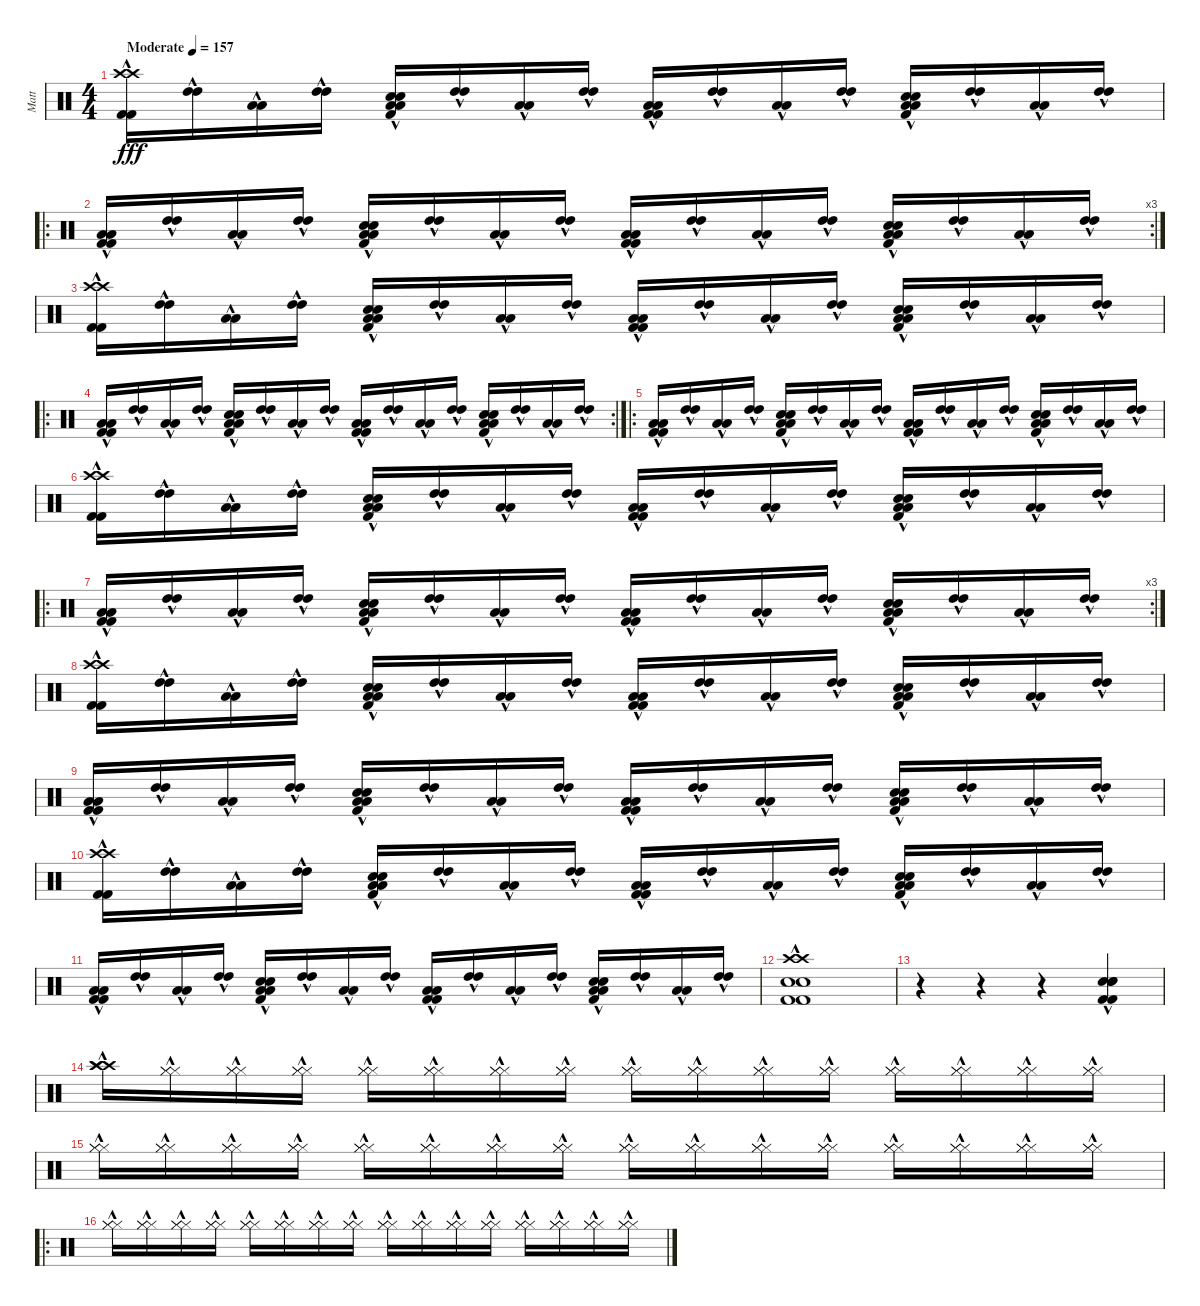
\track ("Matt" "Matt") {instrument percussion}
\staff {score}
\articulation defaults
\ts (4 4)
\tempo (157 "Moderate")
\clef neutral
\ks c
("Crash high (hit)"{hac} "Crash high (hit)"{hac} "Kick (hit) 2"{hac} "Kick (hit) 2"{hac}).16{dy fff} ("High Tom (hit)"{hac} "High Tom (hit)"{hac}).16 ("Low Tom (hit)"{hac} "Low Tom (hit)"{hac}).16 ("High Tom (hit)"{hac} "High Tom (hit)"{hac}).16 ("Low Tom (hit)"{hac} "Low Tom (hit)"{hac} "Snare (hit) 2"{hac} "Kick (hit) 2"{hac} "Snare (hit) 2"{hac}).16 ("High Tom (hit)"{hac} "High Tom (hit)"{hac}).16 ("Low Tom (hit)"{hac} "Low Tom (hit)"{hac}).16 ("High Tom (hit)"{hac} "High Tom (hit)"{hac}).16 ("Low Tom (hit)"{hac} "Low Tom (hit)"{hac} "Kick (hit) 2"{hac} "Kick (hit) 2"{hac}).16 ("High Tom (hit)"{hac} "High Tom (hit)"{hac}).16 ("Low Tom (hit)"{hac} "Low Tom (hit)"{hac}).16 ("High Tom (hit)"{hac} "High Tom (hit)"{hac}).16 ("Low Tom (hit)"{hac} "Low Tom (hit)"{hac} "Snare (hit) 2"{hac} "Kick (hit) 2"{hac} "Snare (hit) 2"{hac}).16 ("High Tom (hit)"{hac} "High Tom (hit)"{hac}).16 ("Low Tom (hit)"{hac} "Low Tom (hit)"{hac}).16 ("High Tom (hit)"{hac} "High Tom (hit)"{hac}).16 |
\ro
\rc 3
("Low Tom (hit)"{hac} "Low Tom (hit)"{hac} "Kick (hit) 2"{hac} "Kick (hit) 2"{hac}).16 ("High Tom (hit)"{hac} "High Tom (hit)"{hac}).16 ("Low Tom (hit)"{hac} "Low Tom (hit)"{hac}).16 ("High Tom (hit)"{hac} "High Tom (hit)"{hac}).16 ("Low Tom (hit)"{hac} "Low Tom (hit)"{hac} "Snare (hit) 2"{hac} "Kick (hit) 2"{hac} "Snare (hit) 2"{hac}).16 ("High Tom (hit)"{hac} "High Tom (hit)"{hac}).16 ("Low Tom (hit)"{hac} "Low Tom (hit)"{hac}).16 ("High Tom (hit)"{hac} "High Tom (hit)"{hac}).16 ("Low Tom (hit)"{hac} "Low Tom (hit)"{hac} "Kick (hit) 2"{hac} "Kick (hit) 2"{hac}).16 ("High Tom (hit)"{hac} "High Tom (hit)"{hac}).16 ("Low Tom (hit)"{hac} "Low Tom (hit)"{hac}).16 ("High Tom (hit)"{hac} "High Tom (hit)"{hac}).16 ("Low Tom (hit)"{hac} "Low Tom (hit)"{hac} "Snare (hit) 2"{hac} "Kick (hit) 2"{hac} "Snare (hit) 2"{hac}).16 ("High Tom (hit)"{hac} "High Tom (hit)"{hac}).16 ("Low Tom (hit)"{hac} "Low Tom (hit)"{hac}).16 ("High Tom (hit)"{hac} "High Tom (hit)"{hac}).16 |
("Crash high (hit)"{hac} "Crash high (hit)"{hac} "Kick (hit) 2"{hac} "Kick (hit) 2"{hac}).16 ("High Tom (hit)"{hac} "High Tom (hit)"{hac}).16 ("Low Tom (hit)"{hac} "Low Tom (hit)"{hac}).16 ("High Tom (hit)"{hac} "High Tom (hit)"{hac}).16 ("Low Tom (hit)"{hac} "Low Tom (hit)"{hac} "Snare (hit) 2"{hac} "Kick (hit) 2"{hac} "Snare (hit) 2"{hac}).16 ("High Tom (hit)"{hac} "High Tom (hit)"{hac}).16 ("Low Tom (hit)"{hac} "Low Tom (hit)"{hac}).16 ("High Tom (hit)"{hac} "High Tom (hit)"{hac}).16 ("Low Tom (hit)"{hac} "Low Tom (hit)"{hac} "Kick (hit) 2"{hac} "Kick (hit) 2"{hac}).16 ("High Tom (hit)"{hac} "High Tom (hit)"{hac}).16 ("Low Tom (hit)"{hac} "Low Tom (hit)"{hac}).16 ("High Tom (hit)"{hac} "High Tom (hit)"{hac}).16 ("Low Tom (hit)"{hac} "Low Tom (hit)"{hac} "Snare (hit) 2"{hac} "Kick (hit) 2"{hac} "Snare (hit) 2"{hac}).16 ("High Tom (hit)"{hac} "High Tom (hit)"{hac}).16 ("Low Tom (hit)"{hac} "Low Tom (hit)"{hac}).16 ("High Tom (hit)"{hac} "High Tom (hit)"{hac}).16 |
\ro
\rc 2
("Low Tom (hit)"{hac} "Low Tom (hit)"{hac} "Kick (hit) 2"{hac} "Kick (hit) 2"{hac}).16 ("High Tom (hit)"{hac} "High Tom (hit)"{hac}).16 ("Low Tom (hit)"{hac} "Low Tom (hit)"{hac}).16 ("High Tom (hit)"{hac} "High Tom (hit)"{hac}).16 ("Low Tom (hit)"{hac} "Low Tom (hit)"{hac} "Snare (hit) 2"{hac} "Kick (hit) 2"{hac} "Snare (hit) 2"{hac}).16 ("High Tom (hit)"{hac} "High Tom (hit)"{hac}).16 ("Low Tom (hit)"{hac} "Low Tom (hit)"{hac}).16 ("High Tom (hit)"{hac} "High Tom (hit)"{hac}).16 ("Low Tom (hit)"{hac} "Low Tom (hit)"{hac} "Kick (hit) 2"{hac} "Kick (hit) 2"{hac}).16 ("High Tom (hit)"{hac} "High Tom (hit)"{hac}).16 ("Low Tom (hit)"{hac} "Low Tom (hit)"{hac}).16 ("High Tom (hit)"{hac} "High Tom (hit)"{hac}).16 ("Low Tom (hit)"{hac} "Low Tom (hit)"{hac} "Snare (hit) 2"{hac} "Kick (hit) 2"{hac} "Snare (hit) 2"{hac}).16 ("High Tom (hit)"{hac} "High Tom (hit)"{hac}).16 ("Low Tom (hit)"{hac} "Low Tom (hit)"{hac}).16 ("High Tom (hit)"{hac} "High Tom (hit)"{hac}).16 |
\ro
("Low Tom (hit)"{hac} "Low Tom (hit)"{hac} "Kick (hit) 2"{hac} "Kick (hit) 2"{hac}).16 ("High Tom (hit)"{hac} "High Tom (hit)"{hac}).16 ("Low Tom (hit)"{hac} "Low Tom (hit)"{hac}).16 ("High Tom (hit)"{hac} "High Tom (hit)"{hac}).16 ("Low Tom (hit)"{hac} "Low Tom (hit)"{hac} "Snare (hit) 2"{hac} "Kick (hit) 2"{hac} "Snare (hit) 2"{hac}).16 ("High Tom (hit)"{hac} "High Tom (hit)"{hac}).16 ("Low Tom (hit)"{hac} "Low Tom (hit)"{hac}).16 ("High Tom (hit)"{hac} "High Tom (hit)"{hac}).16 ("Low Tom (hit)"{hac} "Low Tom (hit)"{hac} "Kick (hit) 2"{hac} "Kick (hit) 2"{hac}).16 ("High Tom (hit)"{hac} "High Tom (hit)"{hac}).16 ("Low Tom (hit)"{hac} "Low Tom (hit)"{hac}).16 ("High Tom (hit)"{hac} "High Tom (hit)"{hac}).16 ("Low Tom (hit)"{hac} "Low Tom (hit)"{hac} "Snare (hit) 2"{hac} "Kick (hit) 2"{hac} "Snare (hit) 2"{hac}).16 ("High Tom (hit)"{hac} "High Tom (hit)"{hac}).16 ("Low Tom (hit)"{hac} "Low Tom (hit)"{hac}).16 ("High Tom (hit)"{hac} "High Tom (hit)"{hac}).16 |
("Crash high (hit)"{hac} "Crash high (hit)"{hac} "Kick (hit) 2"{hac} "Kick (hit) 2"{hac}).16 ("High Tom (hit)"{hac} "High Tom (hit)"{hac}).16 ("Low Tom (hit)"{hac} "Low Tom (hit)"{hac}).16 ("High Tom (hit)"{hac} "High Tom (hit)"{hac}).16 ("Low Tom (hit)"{hac} "Low Tom (hit)"{hac} "Snare (hit) 2"{hac} "Kick (hit) 2"{hac} "Snare (hit) 2"{hac}).16 ("High Tom (hit)"{hac} "High Tom (hit)"{hac}).16 ("Low Tom (hit)"{hac} "Low Tom (hit)"{hac}).16 ("High Tom (hit)"{hac} "High Tom (hit)"{hac}).16 ("Low Tom (hit)"{hac} "Low Tom (hit)"{hac} "Kick (hit) 2"{hac} "Kick (hit) 2"{hac}).16 ("High Tom (hit)"{hac} "High Tom (hit)"{hac}).16 ("Low Tom (hit)"{hac} "Low Tom (hit)"{hac}).16 ("High Tom (hit)"{hac} "High Tom (hit)"{hac}).16 ("Low Tom (hit)"{hac} "Low Tom (hit)"{hac} "Snare (hit) 2"{hac} "Kick (hit) 2"{hac} "Snare (hit) 2"{hac}).16 ("High Tom (hit)"{hac} "High Tom (hit)"{hac}).16 ("Low Tom (hit)"{hac} "Low Tom (hit)"{hac}).16 ("High Tom (hit)"{hac} "High Tom (hit)"{hac}).16 |
\ro
\rc 3
("Low Tom (hit)"{hac} "Low Tom (hit)"{hac} "Kick (hit) 2"{hac} "Kick (hit) 2"{hac}).16 ("High Tom (hit)"{hac} "High Tom (hit)"{hac}).16 ("Low Tom (hit)"{hac} "Low Tom (hit)"{hac}).16 ("High Tom (hit)"{hac} "High Tom (hit)"{hac}).16 ("Low Tom (hit)"{hac} "Low Tom (hit)"{hac} "Snare (hit) 2"{hac} "Kick (hit) 2"{hac} "Snare (hit) 2"{hac}).16 ("High Tom (hit)"{hac} "High Tom (hit)"{hac}).16 ("Low Tom (hit)"{hac} "Low Tom (hit)"{hac}).16 ("High Tom (hit)"{hac} "High Tom (hit)"{hac}).16 ("Low Tom (hit)"{hac} "Low Tom (hit)"{hac} "Kick (hit) 2"{hac} "Kick (hit) 2"{hac}).16 ("High Tom (hit)"{hac} "High Tom (hit)"{hac}).16 ("Low Tom (hit)"{hac} "Low Tom (hit)"{hac}).16 ("High Tom (hit)"{hac} "High Tom (hit)"{hac}).16 ("Low Tom (hit)"{hac} "Low Tom (hit)"{hac} "Snare (hit) 2"{hac} "Kick (hit) 2"{hac} "Snare (hit) 2"{hac}).16 ("High Tom (hit)"{hac} "High Tom (hit)"{hac}).16 ("Low Tom (hit)"{hac} "Low Tom (hit)"{hac}).16 ("High Tom (hit)"{hac} "High Tom (hit)"{hac}).16 |
("Crash high (hit)"{hac} "Crash high (hit)"{hac} "Kick (hit) 2"{hac} "Kick (hit) 2"{hac}).16 ("High Tom (hit)"{hac} "High Tom (hit)"{hac}).16 ("Low Tom (hit)"{hac} "Low Tom (hit)"{hac}).16 ("High Tom (hit)"{hac} "High Tom (hit)"{hac}).16 ("Low Tom (hit)"{hac} "Low Tom (hit)"{hac} "Snare (hit) 2"{hac} "Kick (hit) 2"{hac} "Snare (hit) 2"{hac}).16 ("High Tom (hit)"{hac} "High Tom (hit)"{hac}).16 ("Low Tom (hit)"{hac} "Low Tom (hit)"{hac}).16 ("High Tom (hit)"{hac} "High Tom (hit)"{hac}).16 ("Low Tom (hit)"{hac} "Low Tom (hit)"{hac} "Kick (hit) 2"{hac} "Kick (hit) 2"{hac}).16 ("High Tom (hit)"{hac} "High Tom (hit)"{hac}).16 ("Low Tom (hit)"{hac} "Low Tom (hit)"{hac}).16 ("High Tom (hit)"{hac} "High Tom (hit)"{hac}).16 ("Low Tom (hit)"{hac} "Low Tom (hit)"{hac} "Snare (hit) 2"{hac} "Kick (hit) 2"{hac} "Snare (hit) 2"{hac}).16 ("High Tom (hit)"{hac} "High Tom (hit)"{hac}).16 ("Low Tom (hit)"{hac} "Low Tom (hit)"{hac}).16 ("High Tom (hit)"{hac} "High Tom (hit)"{hac}).16 |
("Low Tom (hit)"{hac} "Low Tom (hit)"{hac} "Kick (hit) 2"{hac} "Kick (hit) 2"{hac}).16 ("High Tom (hit)"{hac} "High Tom (hit)"{hac}).16 ("Low Tom (hit)"{hac} "Low Tom (hit)"{hac}).16 ("High Tom (hit)"{hac} "High Tom (hit)"{hac}).16 ("Low Tom (hit)"{hac} "Low Tom (hit)"{hac} "Snare (hit) 2"{hac} "Kick (hit) 2"{hac} "Snare (hit) 2"{hac}).16 ("High Tom (hit)"{hac} "High Tom (hit)"{hac}).16 ("Low Tom (hit)"{hac} "Low Tom (hit)"{hac}).16 ("High Tom (hit)"{hac} "High Tom (hit)"{hac}).16 ("Low Tom (hit)"{hac} "Low Tom (hit)"{hac} "Kick (hit) 2"{hac} "Kick (hit) 2"{hac}).16 ("High Tom (hit)"{hac} "High Tom (hit)"{hac}).16 ("Low Tom (hit)"{hac} "Low Tom (hit)"{hac}).16 ("High Tom (hit)"{hac} "High Tom (hit)"{hac}).16 ("Low Tom (hit)"{hac} "Low Tom (hit)"{hac} "Snare (hit) 2"{hac} "Kick (hit) 2"{hac} "Snare (hit) 2"{hac}).16 ("High Tom (hit)"{hac} "High Tom (hit)"{hac}).16 ("Low Tom (hit)"{hac} "Low Tom (hit)"{hac}).16 ("High Tom (hit)"{hac} "High Tom (hit)"{hac}).16 |
("Crash high (hit)"{hac} "Crash high (hit)"{hac} "Kick (hit) 2"{hac} "Kick (hit) 2"{hac}).16 ("High Tom (hit)"{hac} "High Tom (hit)"{hac}).16 ("Low Tom (hit)"{hac} "Low Tom (hit)"{hac}).16 ("High Tom (hit)"{hac} "High Tom (hit)"{hac}).16 ("Low Tom (hit)"{hac} "Low Tom (hit)"{hac} "Snare (hit) 2"{hac} "Kick (hit) 2"{hac} "Snare (hit) 2"{hac}).16 ("High Tom (hit)"{hac} "High Tom (hit)"{hac}).16 ("Low Tom (hit)"{hac} "Low Tom (hit)"{hac}).16 ("High Tom (hit)"{hac} "High Tom (hit)"{hac}).16 ("Low Tom (hit)"{hac} "Low Tom (hit)"{hac} "Kick (hit) 2"{hac} "Kick (hit) 2"{hac}).16 ("High Tom (hit)"{hac} "High Tom (hit)"{hac}).16 ("Low Tom (hit)"{hac} "Low Tom (hit)"{hac}).16 ("High Tom (hit)"{hac} "High Tom (hit)"{hac}).16 ("Low Tom (hit)"{hac} "Low Tom (hit)"{hac} "Snare (hit) 2"{hac} "Kick (hit) 2"{hac} "Snare (hit) 2"{hac}).16 ("High Tom (hit)"{hac} "High Tom (hit)"{hac}).16 ("Low Tom (hit)"{hac} "Low Tom (hit)"{hac}).16 ("High Tom (hit)"{hac} "High Tom (hit)"{hac}).16 |
("Low Tom (hit)"{hac} "Low Tom (hit)"{hac} "Kick (hit) 2"{hac} "Kick (hit) 2"{hac}).16 ("High Tom (hit)"{hac} "High Tom (hit)"{hac}).16 ("Low Tom (hit)"{hac} "Low Tom (hit)"{hac}).16 ("High Tom (hit)"{hac} "High Tom (hit)"{hac}).16 ("Low Tom (hit)"{hac} "Low Tom (hit)"{hac} "Snare (hit) 2"{hac} "Kick (hit) 2"{hac} "Snare (hit) 2"{hac}).16 ("High Tom (hit)"{hac} "High Tom (hit)"{hac}).16 ("Low Tom (hit)"{hac} "Low Tom (hit)"{hac}).16 ("High Tom (hit)"{hac} "High Tom (hit)"{hac}).16 ("Low Tom (hit)"{hac} "Low Tom (hit)"{hac} "Kick (hit) 2"{hac} "Kick (hit) 2"{hac}).16 ("High Tom (hit)"{hac} "High Tom (hit)"{hac}).16 ("Low Tom (hit)"{hac} "Low Tom (hit)"{hac}).16 ("High Tom (hit)"{hac} "High Tom (hit)"{hac}).16 ("Low Tom (hit)"{hac} "Low Tom (hit)"{hac} "Snare (hit) 2"{hac} "Kick (hit) 2"{hac} "Snare (hit) 2"{hac}).16 ("High Tom (hit)"{hac} "High Tom (hit)"{hac}).16 ("Low Tom (hit)"{hac} "Low Tom (hit)"{hac}).16 ("High Tom (hit)"{hac} "High Tom (hit)"{hac}).16 |
("Crash high (hit)"{hac} "Crash high (hit)"{hac} "Snare (hit) 2"{hac} "Snare (hit) 2"{hac} "Kick (hit) 2"{hac} "Kick (hit) 2"{hac}).1 |
r.4 r.4 r.4 ("Kick (hit) 2"{hac} "Kick (hit) 2"{hac} "Snare (hit) 2"{hac} "Snare (hit) 2"{hac} "Snare (hit) 2"{hac}).4 |
("Crash high (hit)"{hac} "Crash high (hit)"{hac} "Crash high (hit)"{hac}).16 ("Hi-Hat (closed)"{hac} "Hi-Hat (closed)"{hac} "Hi-Hat (closed)"{hac}).16 ("Hi-Hat (closed)"{hac} "Hi-Hat (closed)"{hac} "Hi-Hat (closed)"{hac}).16 ("Hi-Hat (closed)"{hac} "Hi-Hat (closed)"{hac} "Hi-Hat (closed)"{hac}).16 ("Hi-Hat (closed)"{hac} "Hi-Hat (closed)"{hac} "Hi-Hat (closed)"{hac}).16 ("Hi-Hat (closed)"{hac} "Hi-Hat (closed)"{hac} "Hi-Hat (closed)"{hac}).16 ("Hi-Hat (closed)"{hac} "Hi-Hat (closed)"{hac} "Hi-Hat (closed)"{hac}).16 ("Hi-Hat (closed)"{hac} "Hi-Hat (closed)"{hac} "Hi-Hat (closed)"{hac}).16 ("Hi-Hat (closed)"{hac} "Hi-Hat (closed)"{hac} "Hi-Hat (closed)"{hac}).16 ("Hi-Hat (closed)"{hac} "Hi-Hat (closed)"{hac} "Hi-Hat (closed)"{hac}).16 ("Hi-Hat (closed)"{hac} "Hi-Hat (closed)"{hac} "Hi-Hat (closed)"{hac}).16 ("Hi-Hat (closed)"{hac} "Hi-Hat (closed)"{hac} "Hi-Hat (closed)"{hac}).16 ("Hi-Hat (closed)"{hac} "Hi-Hat (closed)"{hac} "Hi-Hat (closed)"{hac}).16 ("Hi-Hat (closed)"{hac} "Hi-Hat (closed)"{hac} "Hi-Hat (closed)"{hac}).16 ("Hi-Hat (closed)"{hac} "Hi-Hat (closed)"{hac} "Hi-Hat (closed)"{hac}).16 ("Hi-Hat (closed)"{hac} "Hi-Hat (closed)"{hac} "Hi-Hat (closed)"{hac}).16 |
("Hi-Hat (closed)"{hac} "Hi-Hat (closed)"{hac} "Hi-Hat (closed)"{hac}).16 ("Hi-Hat (closed)"{hac} "Hi-Hat (closed)"{hac} "Hi-Hat (closed)"{hac}).16 ("Hi-Hat (closed)"{hac} "Hi-Hat (closed)"{hac} "Hi-Hat (closed)"{hac}).16 ("Hi-Hat (closed)"{hac} "Hi-Hat (closed)"{hac} "Hi-Hat (closed)"{hac}).16 ("Hi-Hat (closed)"{hac} "Hi-Hat (closed)"{hac} "Hi-Hat (closed)"{hac}).16 ("Hi-Hat (closed)"{hac} "Hi-Hat (closed)"{hac} "Hi-Hat (closed)"{hac}).16 ("Hi-Hat (closed)"{hac} "Hi-Hat (closed)"{hac} "Hi-Hat (closed)"{hac}).16 ("Hi-Hat (closed)"{hac} "Hi-Hat (closed)"{hac} "Hi-Hat (closed)"{hac}).16 ("Hi-Hat (closed)"{hac} "Hi-Hat (closed)"{hac} "Hi-Hat (closed)"{hac}).16 ("Hi-Hat (closed)"{hac} "Hi-Hat (closed)"{hac} "Hi-Hat (closed)"{hac}).16 ("Hi-Hat (closed)"{hac} "Hi-Hat (closed)"{hac} "Hi-Hat (closed)"{hac}).16 ("Hi-Hat (closed)"{hac} "Hi-Hat (closed)"{hac} "Hi-Hat (closed)"{hac}).16 ("Hi-Hat (closed)"{hac} "Hi-Hat (closed)"{hac} "Hi-Hat (closed)"{hac}).16 ("Hi-Hat (closed)"{hac} "Hi-Hat (closed)"{hac} "Hi-Hat (closed)"{hac}).16 ("Hi-Hat (closed)"{hac} "Hi-Hat (closed)"{hac} "Hi-Hat (closed)"{hac}).16 ("Hi-Hat (closed)"{hac} "Hi-Hat (closed)"{hac} "Hi-Hat (closed)"{hac}).16 |
\ro
("Hi-Hat (closed)"{hac} "Hi-Hat (closed)"{hac} "Hi-Hat (closed)"{hac}).16 ("Hi-Hat (closed)"{hac} "Hi-Hat (closed)"{hac} "Hi-Hat (closed)"{hac}).16 ("Hi-Hat (closed)"{hac} "Hi-Hat (closed)"{hac} "Hi-Hat (closed)"{hac}).16 ("Hi-Hat (closed)"{hac} "Hi-Hat (closed)"{hac} "Hi-Hat (closed)"{hac}).16 ("Hi-Hat (closed)"{hac} "Hi-Hat (closed)"{hac} "Hi-Hat (closed)"{hac}).16 ("Hi-Hat (closed)"{hac} "Hi-Hat (closed)"{hac} "Hi-Hat (closed)"{hac}).16 ("Hi-Hat (closed)"{hac} "Hi-Hat (closed)"{hac} "Hi-Hat (closed)"{hac}).16 ("Hi-Hat (closed)"{hac} "Hi-Hat (closed)"{hac} "Hi-Hat (closed)"{hac}).16 ("Hi-Hat (closed)"{hac} "Hi-Hat (closed)"{hac} "Hi-Hat (closed)"{hac}).16 ("Hi-Hat (closed)"{hac} "Hi-Hat (closed)"{hac} "Hi-Hat (closed)"{hac}).16 ("Hi-Hat (closed)"{hac} "Hi-Hat (closed)"{hac} "Hi-Hat (closed)"{hac}).16 ("Hi-Hat (closed)"{hac} "Hi-Hat (closed)"{hac} "Hi-Hat (closed)"{hac}).16 ("Hi-Hat (closed)"{hac} "Hi-Hat (closed)"{hac} "Hi-Hat (closed)"{hac}).16 ("Hi-Hat (closed)"{hac} "Hi-Hat (closed)"{hac} "Hi-Hat (closed)"{hac}).16 ("Hi-Hat (closed)"{hac} "Hi-Hat (closed)"{hac} "Hi-Hat (closed)"{hac}).16 ("Hi-Hat (closed)"{hac} "Hi-Hat (closed)"{hac} "Hi-Hat (closed)"{hac}).16
